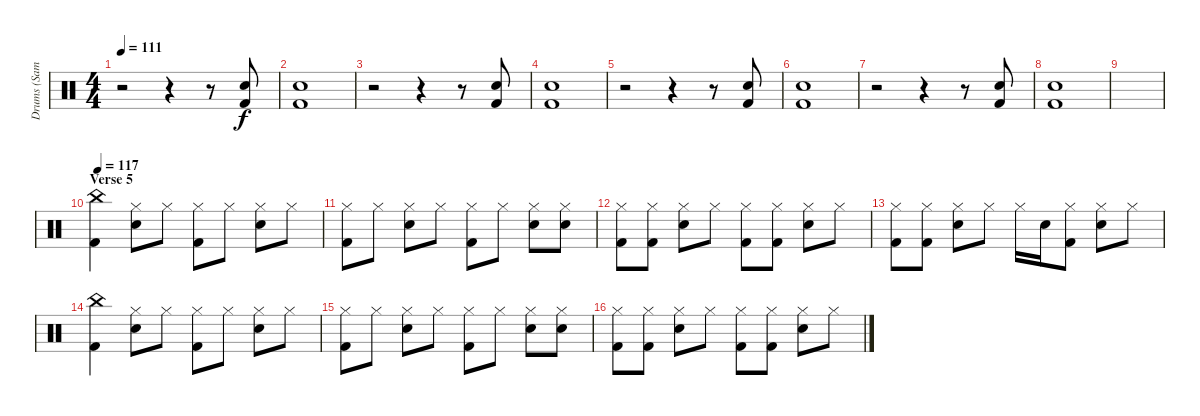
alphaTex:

\track ("Drums (Sam)" "Drums (Sam") {instrument percussion}
\staff {score}
\articulation defaults
\ts (4 4)
\tempo 111
\clef neutral
\ks c
r.2{dy f} r.4 r.8 ("Snare (hit) 2" "Kick (hit) 2").8{volume 15} |
("Snare (hit) 2" "Kick (hit) 2").1 |
r.2 r.4 r.8 ("Snare (hit) 2" "Kick (hit) 2").8 |
("Snare (hit) 2" "Kick (hit) 2").1 |
r.2 r.4 r.8 ("Snare (hit) 2" "Kick (hit) 2").8 |
("Snare (hit) 2" "Kick (hit) 2").1 |
r.2 r.4 r.8 ("Snare (hit) 2" "Kick (hit) 2").8 |
("Snare (hit) 2" "Kick (hit) 2").1 |
|
\section ("" "Verse 5")
\tempo 117
("China (hit)" "Kick (hit) 2").4 ("Hi-Hat (closed)" "Snare (hit) 2").8 "Hi-Hat (closed)".8 ("Hi-Hat (closed)" "Kick (hit) 2").8 "Hi-Hat (closed)".8 ("Hi-Hat (closed)" "Snare (hit) 2").8 "Hi-Hat (closed)".8 |
("Hi-Hat (closed)" "Kick (hit) 2").8 "Hi-Hat (closed)".8 ("Hi-Hat (closed)" "Snare (hit) 2").8 "Hi-Hat (closed)".8 ("Hi-Hat (closed)" "Kick (hit) 2").8 "Hi-Hat (closed)".8 ("Hi-Hat (closed)" "Snare (hit) 2").8 ("Hi-Hat (closed)" "Snare (hit) 2").8 |
("Hi-Hat (closed)" "Kick (hit) 2").8 ("Hi-Hat (closed)" "Kick (hit) 2").8 ("Hi-Hat (closed)" "Snare (hit) 2").8 "Hi-Hat (closed)".8 ("Hi-Hat (closed)" "Kick (hit) 2").8 ("Hi-Hat (closed)" "Kick (hit) 2").8 ("Hi-Hat (closed)" "Snare (hit) 2").8 "Hi-Hat (closed)".8 |
("Hi-Hat (closed)" "Kick (hit) 2").8 ("Hi-Hat (closed)" "Kick (hit) 2").8 ("Hi-Hat (closed)" "Snare (hit) 2").8 "Hi-Hat (closed)".8 "Hi-Hat (closed)".16 "Snare (hit) 2".16 ("Hi-Hat (closed)" "Kick (hit) 2").8 ("Hi-Hat (closed)" "Snare (hit) 2").8 "Hi-Hat (closed)".8 |
("China (hit)" "Kick (hit) 2").4 ("Hi-Hat (closed)" "Snare (hit) 2").8 "Hi-Hat (closed)".8 ("Hi-Hat (closed)" "Kick (hit) 2").8 "Hi-Hat (closed)".8 ("Hi-Hat (closed)" "Snare (hit) 2").8 "Hi-Hat (closed)".8 |
("Hi-Hat (closed)" "Kick (hit) 2").8 "Hi-Hat (closed)".8 ("Hi-Hat (closed)" "Snare (hit) 2").8 "Hi-Hat (closed)".8 ("Hi-Hat (closed)" "Kick (hit) 2").8 "Hi-Hat (closed)".8 ("Hi-Hat (closed)" "Snare (hit) 2").8 ("Hi-Hat (closed)" "Snare (hit) 2").8 |
("Hi-Hat (closed)" "Kick (hit) 2").8 ("Hi-Hat (closed)" "Kick (hit) 2").8 ("Hi-Hat (closed)" "Snare (hit) 2").8 "Hi-Hat (closed)".8 ("Hi-Hat (closed)" "Kick (hit) 2").8 ("Hi-Hat (closed)" "Kick (hit) 2").8 ("Hi-Hat (closed)" "Snare (hit) 2").8 "Hi-Hat (closed)".8
